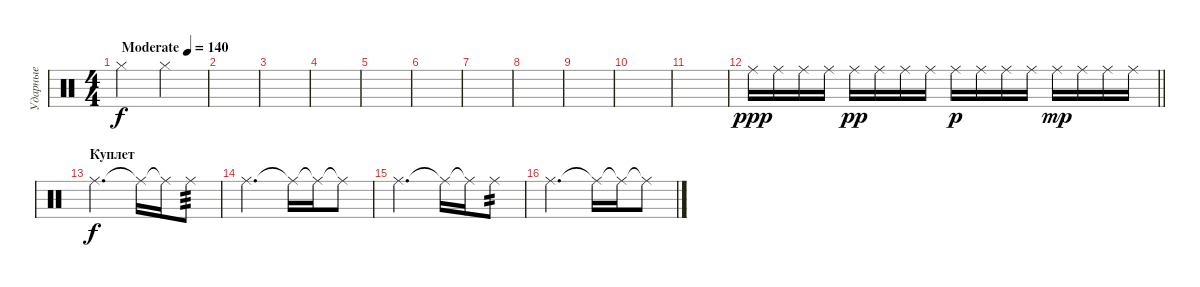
\track ("Ударные" "Ударные") {instrument percussion}
\staff {score}
\articulation defaults
\ts (4 4)
\tempo (140 "Moderate")
\clef neutral
\ks c "Hi-Hat (closed)".2{dy f} "Hi-Hat (closed)".2
|
|
|
|
|
|
|
|
|
|
|
\barLineRight lightlight "Ride (middle)".16{dy ppp} "Ride (middle)".16 "Ride (middle)".16 "Ride (middle)".16 "Ride (middle)".16{dy pp} "Ride (middle)".16 "Ride (middle)".16 "Ride (middle)".16 "Ride (middle)".16{dy p} "Ride (middle)".16 "Ride (middle)".16 "Ride (middle)".16 "Ride (middle)".16{dy mp} "Ride (middle)".16 "Ride (middle)".16 "Ride (middle)".16
|
\section ("" "Куплет")
"Ride (middle)".2{d dy f} "Ride (middle)"{t}.16 "Ride (middle)"{t}.16 "Ride (middle)".8{tp 3} |
"Ride (middle)".2{d} "Ride (middle)"{t}.16 "Ride (middle)"{t}.16 "Ride (middle)"{t}.8 |
"Ride (middle)".2{d} "Ride (middle)"{t}.16 "Ride (middle)"{t}.16 "Ride (middle)".8{tp 2} |
"Ride (middle)".2{d} "Ride (middle)"{t}.16 "Ride (middle)"{t}.16 "Ride (middle)"{t}.8
